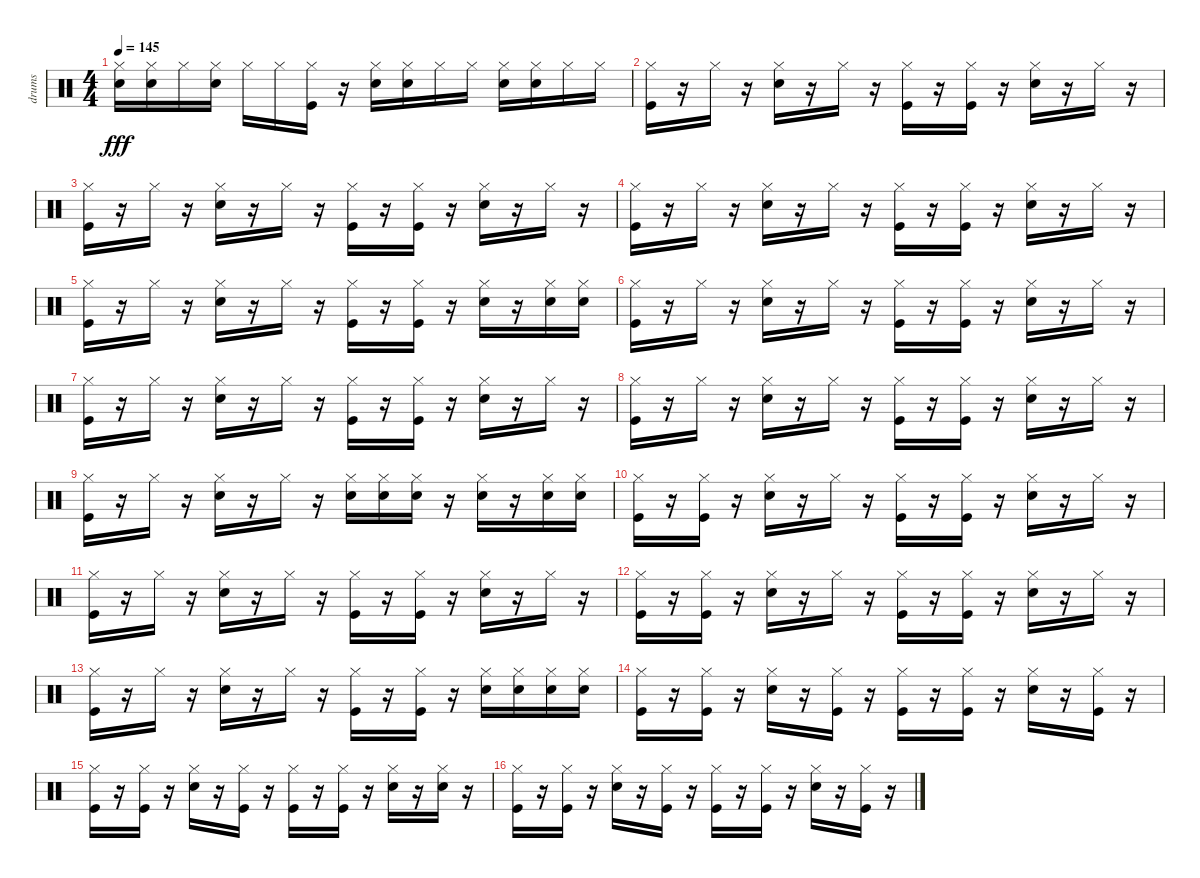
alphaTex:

\track ("drums" "drums") {instrument percussion}
\staff {score}
\articulation defaults
\ts (4 4)
\tempo 145
\clef neutral
\ks c
("Snare (hit) 2" "Hi-Hat (closed)").16{dy fff} ("Snare (hit) 2" "Hi-Hat (closed)").16 "Hi-Hat (closed)".16 ("Snare (hit) 2" "Hi-Hat (closed)").16 "Hi-Hat (closed)".16 "Hi-Hat (closed)".16 ("Kick (hit)" "Hi-Hat (closed)").16 r.16 ("Snare (hit) 2" "Hi-Hat (closed)").16 ("Snare (hit) 2" "Hi-Hat (closed)").16 "Hi-Hat (closed)".16 "Hi-Hat (closed)".16 ("Snare (hit) 2" "Hi-Hat (closed)").16 ("Snare (hit) 2" "Hi-Hat (closed)").16 "Hi-Hat (closed)".16 "Hi-Hat (closed)".16 |
("Kick (hit)" "Hi-Hat (closed)").16 r.16 "Hi-Hat (closed)".16 r.16 ("Snare (hit) 2" "Hi-Hat (closed)").16 r.16 "Hi-Hat (closed)".16 r.16 ("Kick (hit)" "Hi-Hat (closed)").16 r.16 ("Kick (hit)" "Hi-Hat (closed)").16 r.16 ("Snare (hit) 2" "Hi-Hat (closed)").16 r.16 "Hi-Hat (closed)".16 r.16 |
("Kick (hit)" "Hi-Hat (closed)").16 r.16 "Hi-Hat (closed)".16 r.16 ("Snare (hit) 2" "Hi-Hat (closed)").16 r.16 "Hi-Hat (closed)".16 r.16 ("Kick (hit)" "Hi-Hat (closed)").16 r.16 ("Kick (hit)" "Hi-Hat (closed)").16 r.16 ("Snare (hit) 2" "Hi-Hat (closed)").16 r.16 "Hi-Hat (closed)".16 r.16 |
("Kick (hit)" "Hi-Hat (closed)").16 r.16 "Hi-Hat (closed)".16 r.16 ("Snare (hit) 2" "Hi-Hat (closed)").16 r.16 "Hi-Hat (closed)".16 r.16 ("Kick (hit)" "Hi-Hat (closed)").16 r.16 ("Kick (hit)" "Hi-Hat (closed)").16 r.16 ("Snare (hit) 2" "Hi-Hat (closed)").16 r.16 "Hi-Hat (closed)".16 r.16 |
("Kick (hit)" "Hi-Hat (closed)").16 r.16 "Hi-Hat (closed)".16 r.16 ("Snare (hit) 2" "Hi-Hat (closed)").16 r.16 "Hi-Hat (closed)".16 r.16 ("Kick (hit)" "Hi-Hat (closed)").16 r.16 ("Kick (hit)" "Hi-Hat (closed)").16 r.16 ("Snare (hit) 2" "Hi-Hat (closed)").16 r.16 ("Snare (hit) 2" "Hi-Hat (closed)").16 ("Snare (hit) 2" "Hi-Hat (closed)").16 |
("Kick (hit)" "Hi-Hat (closed)").16 r.16 "Hi-Hat (closed)".16 r.16 ("Snare (hit) 2" "Hi-Hat (closed)").16 r.16 "Hi-Hat (closed)".16 r.16 ("Kick (hit)" "Hi-Hat (closed)").16 r.16 ("Kick (hit)" "Hi-Hat (closed)").16 r.16 ("Snare (hit) 2" "Hi-Hat (closed)").16 r.16 "Hi-Hat (closed)".16 r.16 |
("Kick (hit)" "Hi-Hat (closed)").16 r.16 "Hi-Hat (closed)".16 r.16 ("Snare (hit) 2" "Hi-Hat (closed)").16 r.16 "Hi-Hat (closed)".16 r.16 ("Kick (hit)" "Hi-Hat (closed)").16 r.16 ("Kick (hit)" "Hi-Hat (closed)").16 r.16 ("Snare (hit) 2" "Hi-Hat (closed)").16 r.16 "Hi-Hat (closed)".16 r.16 |
("Kick (hit)" "Hi-Hat (closed)").16 r.16 "Hi-Hat (closed)".16 r.16 ("Snare (hit) 2" "Hi-Hat (closed)").16 r.16 "Hi-Hat (closed)".16 r.16 ("Kick (hit)" "Hi-Hat (closed)").16 r.16 ("Kick (hit)" "Hi-Hat (closed)").16 r.16 ("Snare (hit) 2" "Hi-Hat (closed)").16 r.16 "Hi-Hat (closed)".16 r.16 |
("Kick (hit)" "Hi-Hat (closed)").16 r.16 "Hi-Hat (closed)".16 r.16 ("Snare (hit) 2" "Hi-Hat (closed)").16 r.16 "Hi-Hat (closed)".16 r.16 ("Snare (hit) 2" "Hi-Hat (closed)").16 ("Snare (hit) 2" "Hi-Hat (closed)").16 ("Snare (hit) 2" "Hi-Hat (closed)").16 r.16 ("Snare (hit) 2" "Hi-Hat (closed)").16 r.16 ("Snare (hit) 2" "Hi-Hat (closed)").16 ("Snare (hit) 2" "Hi-Hat (closed)").16 |
("Kick (hit)" "Hi-Hat (closed)").16 r.16 ("Kick (hit)" "Hi-Hat (closed)").16 r.16 ("Snare (hit) 2" "Hi-Hat (closed)").16 r.16 "Hi-Hat (closed)".16 r.16 ("Kick (hit)" "Hi-Hat (closed)").16 r.16 ("Kick (hit)" "Hi-Hat (closed)").16 r.16 ("Snare (hit) 2" "Hi-Hat (closed)").16 r.16 "Hi-Hat (closed)".16 r.16 |
("Kick (hit)" "Hi-Hat (closed)").16 r.16 "Hi-Hat (closed)".16 r.16 ("Snare (hit) 2" "Hi-Hat (closed)").16 r.16 "Hi-Hat (closed)".16 r.16 ("Kick (hit)" "Hi-Hat (closed)").16 r.16 ("Kick (hit)" "Hi-Hat (closed)").16 r.16 ("Snare (hit) 2" "Hi-Hat (closed)").16 r.16 "Hi-Hat (closed)".16 r.16 |
("Kick (hit)" "Hi-Hat (closed)").16 r.16 ("Kick (hit)" "Hi-Hat (closed)").16 r.16 ("Snare (hit) 2" "Hi-Hat (closed)").16 r.16 "Hi-Hat (closed)".16 r.16 ("Kick (hit)" "Hi-Hat (closed)").16 r.16 ("Kick (hit)" "Hi-Hat (closed)").16 r.16 ("Snare (hit) 2" "Hi-Hat (closed)").16 r.16 "Hi-Hat (closed)".16 r.16 |
("Kick (hit)" "Hi-Hat (closed)").16 r.16 "Hi-Hat (closed)".16 r.16 ("Snare (hit) 2" "Hi-Hat (closed)").16 r.16 "Hi-Hat (closed)".16 r.16 ("Kick (hit)" "Hi-Hat (closed)").16 r.16 ("Kick (hit)" "Hi-Hat (closed)").16 r.16 ("Snare (hit) 2" "Hi-Hat (closed)").16 ("Snare (hit) 2" "Hi-Hat (closed)").16 ("Snare (hit) 2" "Hi-Hat (closed)").16 ("Snare (hit) 2" "Hi-Hat (closed)").16 |
("Kick (hit)" "Hi-Hat (closed)").16 r.16 ("Kick (hit)" "Hi-Hat (closed)").16 r.16 ("Snare (hit) 2" "Hi-Hat (closed)").16 r.16 ("Kick (hit)" "Hi-Hat (closed)").16 r.16 ("Kick (hit)" "Hi-Hat (closed)").16 r.16 ("Kick (hit)" "Hi-Hat (closed)").16 r.16 ("Snare (hit) 2" "Hi-Hat (closed)").16 r.16 ("Kick (hit)" "Hi-Hat (closed)").16 r.16 |
("Kick (hit)" "Hi-Hat (closed)").16 r.16 ("Kick (hit)" "Hi-Hat (closed)").16 r.16 ("Snare (hit) 2" "Hi-Hat (closed)").16 r.16 ("Kick (hit)" "Hi-Hat (closed)").16 r.16 ("Kick (hit)" "Hi-Hat (closed)").16 r.16 ("Kick (hit)" "Hi-Hat (closed)").16 r.16 ("Snare (hit) 2" "Hi-Hat (closed)").16 r.16 ("Snare (hit) 2" "Hi-Hat (closed)").16 r.16 |
("Kick (hit)" "Hi-Hat (closed)").16 r.16 ("Kick (hit)" "Hi-Hat (closed)").16 r.16 ("Snare (hit) 2" "Hi-Hat (closed)").16 r.16 ("Kick (hit)" "Hi-Hat (closed)").16 r.16 ("Kick (hit)" "Hi-Hat (closed)").16 r.16 ("Kick (hit)" "Hi-Hat (closed)").16 r.16 ("Snare (hit) 2" "Hi-Hat (closed)").16 r.16 ("Kick (hit)" "Hi-Hat (closed)").16 r.16
